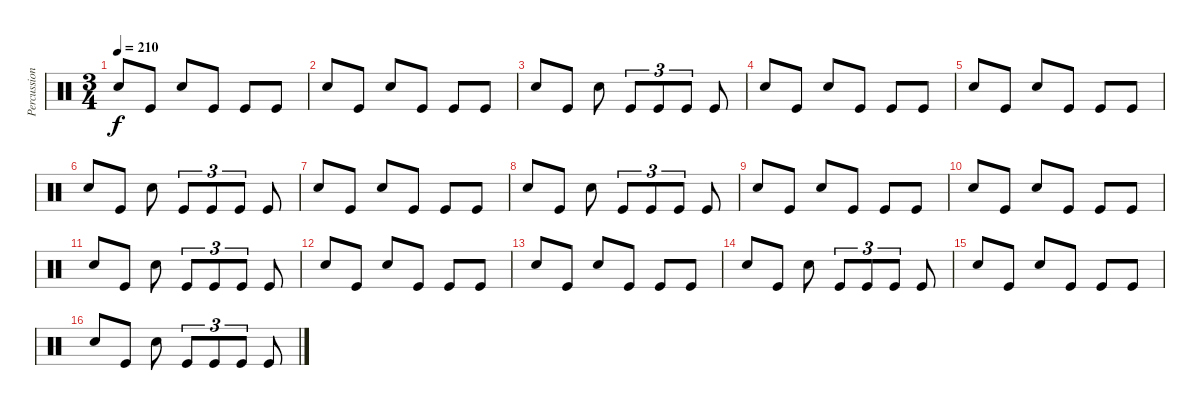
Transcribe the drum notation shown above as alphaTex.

\track ("Percussion" "Percussion") {instrument percussion}
\staff
\articulation defaults
\ts (3 4)
\tempo 200
\tempo 210
\clef neutral
\ks c "Snare (hit) 2".8{dy f} "Kick (hit)".8 "Snare (hit) 2".8 "Kick (hit)".8 "Kick (hit)".8 "Kick (hit)".8
|
"Snare (hit) 2".8 "Kick (hit)".8 "Snare (hit) 2".8 "Kick (hit)".8 "Kick (hit)".8 "Kick (hit)".8 |
"Snare (hit) 2".8 "Kick (hit)".8 "Snare (hit) 2".8 "Kick (hit)".8{tu (3 2)} "Kick (hit)".8{tu (3 2)} "Kick (hit)".8{tu (3 2)} "Kick (hit)".8 |
"Snare (hit) 2".8 "Kick (hit)".8 "Snare (hit) 2".8 "Kick (hit)".8 "Kick (hit)".8 "Kick (hit)".8 |
"Snare (hit) 2".8 "Kick (hit)".8 "Snare (hit) 2".8 "Kick (hit)".8 "Kick (hit)".8 "Kick (hit)".8 |
"Snare (hit) 2".8 "Kick (hit)".8 "Snare (hit) 2".8 "Kick (hit)".8{tu (3 2)} "Kick (hit)".8{tu (3 2)} "Kick (hit)".8{tu (3 2)} "Kick (hit)".8 |
"Snare (hit) 2".8 "Kick (hit)".8 "Snare (hit) 2".8 "Kick (hit)".8 "Kick (hit)".8 "Kick (hit)".8 |
"Snare (hit) 2".8 "Kick (hit)".8 "Snare (hit) 2".8 "Kick (hit)".8{tu (3 2)} "Kick (hit)".8{tu (3 2)} "Kick (hit)".8{tu (3 2)} "Kick (hit)".8 |
"Snare (hit) 2".8 "Kick (hit)".8 "Snare (hit) 2".8 "Kick (hit)".8 "Kick (hit)".8 "Kick (hit)".8 |
"Snare (hit) 2".8 "Kick (hit)".8 "Snare (hit) 2".8 "Kick (hit)".8 "Kick (hit)".8 "Kick (hit)".8 |
"Snare (hit) 2".8 "Kick (hit)".8 "Snare (hit) 2".8 "Kick (hit)".8{tu (3 2)} "Kick (hit)".8{tu (3 2)} "Kick (hit)".8{tu (3 2)} "Kick (hit)".8 |
"Snare (hit) 2".8 "Kick (hit)".8 "Snare (hit) 2".8 "Kick (hit)".8 "Kick (hit)".8 "Kick (hit)".8 |
"Snare (hit) 2".8 "Kick (hit)".8 "Snare (hit) 2".8 "Kick (hit)".8 "Kick (hit)".8 "Kick (hit)".8 |
"Snare (hit) 2".8 "Kick (hit)".8 "Snare (hit) 2".8 "Kick (hit)".8{tu (3 2)} "Kick (hit)".8{tu (3 2)} "Kick (hit)".8{tu (3 2)} "Kick (hit)".8 |
"Snare (hit) 2".8 "Kick (hit)".8 "Snare (hit) 2".8 "Kick (hit)".8 "Kick (hit)".8 "Kick (hit)".8 |
"Snare (hit) 2".8 "Kick (hit)".8 "Snare (hit) 2".8 "Kick (hit)".8{tu (3 2)} "Kick (hit)".8{tu (3 2)} "Kick (hit)".8{tu (3 2)} "Kick (hit)".8
